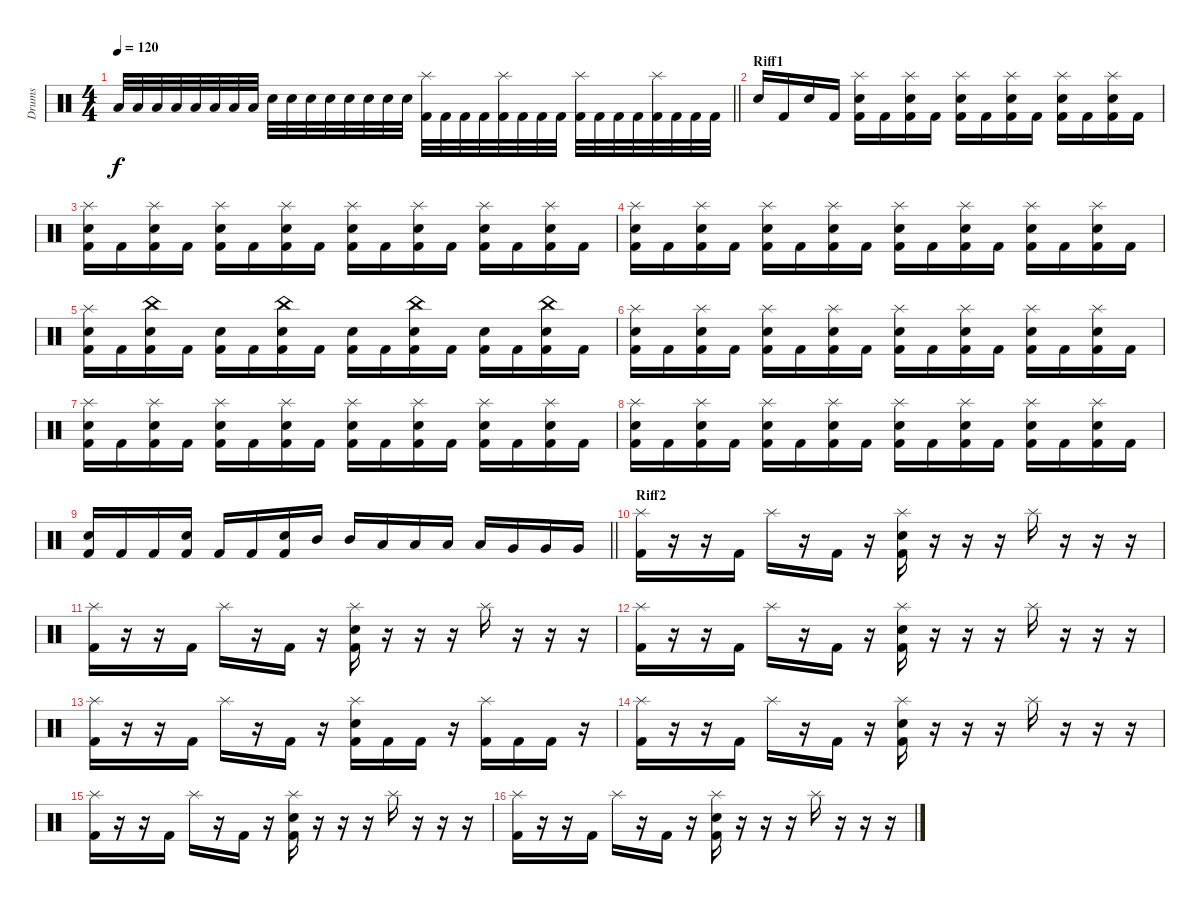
\track ("Drums" "Drums") {instrument percussion}
\staff {score}
\articulation defaults
\ts (4 4)
\tempo 120
\clef neutral
\barLineRight lightlight
\ks c "Low Tom (hit)".32{dy f} "Low Tom (hit)".32 "Low Tom (hit)".32 "Low Tom (hit)".32 "Low Tom (hit)".32 "Low Tom (hit)".32 "Low Tom (hit)".32 "Low Tom (hit)".32 "Snare (hit) 2".32 "Snare (hit) 2".32 "Snare (hit) 2".32 "Snare (hit) 2".32 "Snare (hit) 2".32 "Snare (hit) 2".32 "Snare (hit) 2".32 "Snare (hit) 2".32
("Kick (hit) 2" "Splash (hit)").32 "Kick (hit) 2".32 "Kick (hit) 2".32 "Kick (hit) 2".32 ("Kick (hit) 2" "Splash (hit)").32 "Kick (hit) 2".32 "Kick (hit) 2".32 "Kick (hit) 2".32 ("Kick (hit) 2" "Splash (hit)").32 "Kick (hit) 2".32 "Kick (hit) 2".32 "Kick (hit) 2".32 ("Kick (hit) 2" "Splash (hit)").32 "Kick (hit) 2".32 "Kick (hit) 2".32 "Kick (hit) 2".32 |
\section ("" "Riff1")
"Snare (hit) 2".16 "Kick (hit) 2".16 "Snare (hit) 2".16 "Kick (hit) 2".16 ("Kick (hit) 2" "Splash (hit)" "Snare (hit) 2").16 "Kick (hit) 2".16 ("Kick (hit) 2" "Splash (hit)" "Snare (hit) 2").16 "Kick (hit) 2".16 ("Kick (hit) 2" "Splash (hit)" "Snare (hit) 2").16 "Kick (hit) 2".16 ("Kick (hit) 2" "Splash (hit)" "Snare (hit) 2").16 "Kick (hit) 2".16 ("Kick (hit) 2" "Splash (hit)" "Snare (hit) 2").16 "Kick (hit) 2".16 ("Kick (hit) 2" "Splash (hit)" "Snare (hit) 2").16 "Kick (hit) 2".16 |
("Kick (hit) 2" "Splash (hit)" "Snare (hit) 2").16 "Kick (hit) 2".16 ("Kick (hit) 2" "Splash (hit)" "Snare (hit) 2").16 "Kick (hit) 2".16 ("Kick (hit) 2" "Splash (hit)" "Snare (hit) 2").16 "Kick (hit) 2".16 ("Kick (hit) 2" "Splash (hit)" "Snare (hit) 2").16 "Kick (hit) 2".16 ("Kick (hit) 2" "Splash (hit)" "Snare (hit) 2").16 "Kick (hit) 2".16 ("Kick (hit) 2" "Splash (hit)" "Snare (hit) 2").16 "Kick (hit) 2".16 ("Kick (hit) 2" "Splash (hit)" "Snare (hit) 2").16 "Kick (hit) 2".16 ("Kick (hit) 2" "Splash (hit)" "Snare (hit) 2").16 "Kick (hit) 2".16 |
("Kick (hit) 2" "Splash (hit)" "Snare (hit) 2").16 "Kick (hit) 2".16 ("Kick (hit) 2" "Splash (hit)" "Snare (hit) 2").16 "Kick (hit) 2".16 ("Kick (hit) 2" "Splash (hit)" "Snare (hit) 2").16 "Kick (hit) 2".16 ("Kick (hit) 2" "Splash (hit)" "Snare (hit) 2").16 "Kick (hit) 2".16 ("Kick (hit) 2" "Splash (hit)" "Snare (hit) 2").16 "Kick (hit) 2".16 ("Kick (hit) 2" "Splash (hit)" "Snare (hit) 2").16 "Kick (hit) 2".16 ("Kick (hit) 2" "Splash (hit)" "Snare (hit) 2").16 "Kick (hit) 2".16 ("Kick (hit) 2" "Splash (hit)" "Snare (hit) 2").16 "Kick (hit) 2".16 |
("Kick (hit) 2" "Splash (hit)" "Snare (hit) 2").16 "Kick (hit) 2".16 ("Kick (hit) 2" "China (hit)" "Snare (hit) 2").16 "Kick (hit) 2".16 ("Kick (hit) 2" "Snare (hit) 2").16 "Kick (hit) 2".16 ("Kick (hit) 2" "China (hit)" "Snare (hit) 2").16 "Kick (hit) 2".16 ("Kick (hit) 2" "Snare (hit) 2").16 "Kick (hit) 2".16 ("Kick (hit) 2" "China (hit)" "Snare (hit) 2").16 "Kick (hit) 2".16 ("Kick (hit) 2" "Snare (hit) 2").16 "Kick (hit) 2".16 ("Kick (hit) 2" "China (hit)" "Snare (hit) 2").16 "Kick (hit) 2".16 |
("Kick (hit) 2" "Splash (hit)" "Snare (hit) 2").16 "Kick (hit) 2".16 ("Kick (hit) 2" "Splash (hit)" "Snare (hit) 2").16 "Kick (hit) 2".16 ("Kick (hit) 2" "Splash (hit)" "Snare (hit) 2").16 "Kick (hit) 2".16 ("Kick (hit) 2" "Splash (hit)" "Snare (hit) 2").16 "Kick (hit) 2".16 ("Kick (hit) 2" "Splash (hit)" "Snare (hit) 2").16 "Kick (hit) 2".16 ("Kick (hit) 2" "Splash (hit)" "Snare (hit) 2").16 "Kick (hit) 2".16 ("Kick (hit) 2" "Splash (hit)" "Snare (hit) 2").16 "Kick (hit) 2".16 ("Kick (hit) 2" "Splash (hit)" "Snare (hit) 2").16 "Kick (hit) 2".16 |
("Kick (hit) 2" "Splash (hit)" "Snare (hit) 2").16 "Kick (hit) 2".16 ("Kick (hit) 2" "Splash (hit)" "Snare (hit) 2").16 "Kick (hit) 2".16 ("Kick (hit) 2" "Splash (hit)" "Snare (hit) 2").16 "Kick (hit) 2".16 ("Kick (hit) 2" "Splash (hit)" "Snare (hit) 2").16 "Kick (hit) 2".16 ("Kick (hit) 2" "Splash (hit)" "Snare (hit) 2").16 "Kick (hit) 2".16 ("Kick (hit) 2" "Splash (hit)" "Snare (hit) 2").16 "Kick (hit) 2".16 ("Kick (hit) 2" "Splash (hit)" "Snare (hit) 2").16 "Kick (hit) 2".16 ("Kick (hit) 2" "Splash (hit)" "Snare (hit) 2").16 "Kick (hit) 2".16 |
("Kick (hit) 2" "Splash (hit)" "Snare (hit) 2").16 "Kick (hit) 2".16 ("Kick (hit) 2" "Splash (hit)" "Snare (hit) 2").16 "Kick (hit) 2".16 ("Kick (hit) 2" "Splash (hit)" "Snare (hit) 2").16 "Kick (hit) 2".16 ("Kick (hit) 2" "Splash (hit)" "Snare (hit) 2").16 "Kick (hit) 2".16 ("Kick (hit) 2" "Splash (hit)" "Snare (hit) 2").16 "Kick (hit) 2".16 ("Kick (hit) 2" "Splash (hit)" "Snare (hit) 2").16 "Kick (hit) 2".16 ("Kick (hit) 2" "Splash (hit)" "Snare (hit) 2").16 "Kick (hit) 2".16 ("Kick (hit) 2" "Splash (hit)" "Snare (hit) 2").16 "Kick (hit) 2".16 |
\barLineRight lightlight
("Kick (hit) 2" "Snare (hit) 2").16 "Kick (hit) 2".16 "Kick (hit) 2".16 ("Kick (hit) 2" "Snare (hit) 2").16 "Kick (hit) 2".16 "Kick (hit) 2".16 ("Kick (hit) 2" "Snare (hit) 2").16 "Mid Tom (hit)".16 "Mid Tom (hit)".16 "Low Tom (hit)".16 "Low Tom (hit)".16 "Low Tom (hit)".16 "Low Tom (hit)".16 "Very Low Tom (hit)".16 "Very Low Tom (hit)".16 "Very Low Tom (hit)".16 |
\section ("" "Riff2")
("Kick (hit) 2" "Splash (hit)").16 r.16 r.16 "Kick (hit) 2".16 "Splash (hit)".16 r.16 "Kick (hit) 2".16 r.16 ("Kick (hit) 2" "Splash (hit)" "Snare (hit) 2").16 r.16 r.16 r.16 "Splash (hit)".16 r.16 r.16 r.16 |
("Kick (hit) 2" "Splash (hit)").16 r.16 r.16 "Kick (hit) 2".16 "Splash (hit)".16 r.16 "Kick (hit) 2".16 r.16 ("Kick (hit) 2" "Splash (hit)" "Snare (hit) 2").16 r.16 r.16 r.16 "Splash (hit)".16 r.16 r.16 r.16 |
("Kick (hit) 2" "Splash (hit)").16 r.16 r.16 "Kick (hit) 2".16 "Splash (hit)".16 r.16 "Kick (hit) 2".16 r.16 ("Kick (hit) 2" "Splash (hit)" "Snare (hit) 2").16 r.16 r.16 r.16 "Splash (hit)".16 r.16 r.16 r.16 |
("Kick (hit) 2" "Splash (hit)").16 r.16 r.16 "Kick (hit) 2".16 "Splash (hit)".16 r.16 "Kick (hit) 2".16 r.16 ("Kick (hit) 2" "Splash (hit)" "Snare (hit) 2").16 "Kick (hit) 2".16 "Kick (hit) 2".16 r.16 ("Kick (hit) 2" "Splash (hit)").16 "Kick (hit) 2".16 "Kick (hit) 2".16 r.16 |
("Kick (hit) 2" "Splash (hit)").16 r.16 r.16 "Kick (hit) 2".16 "Splash (hit)".16 r.16 "Kick (hit) 2".16 r.16 ("Kick (hit) 2" "Splash (hit)" "Snare (hit) 2").16 r.16 r.16 r.16 "Splash (hit)".16 r.16 r.16 r.16 |
("Kick (hit) 2" "Splash (hit)").16 r.16 r.16 "Kick (hit) 2".16 "Splash (hit)".16 r.16 "Kick (hit) 2".16 r.16 ("Kick (hit) 2" "Splash (hit)" "Snare (hit) 2").16 r.16 r.16 r.16 "Splash (hit)".16 r.16 r.16 r.16 |
("Kick (hit) 2" "Splash (hit)").16 r.16 r.16 "Kick (hit) 2".16 "Splash (hit)".16 r.16 "Kick (hit) 2".16 r.16 ("Kick (hit) 2" "Splash (hit)" "Snare (hit) 2").16 r.16 r.16 r.16 "Splash (hit)".16 r.16 r.16 r.16
